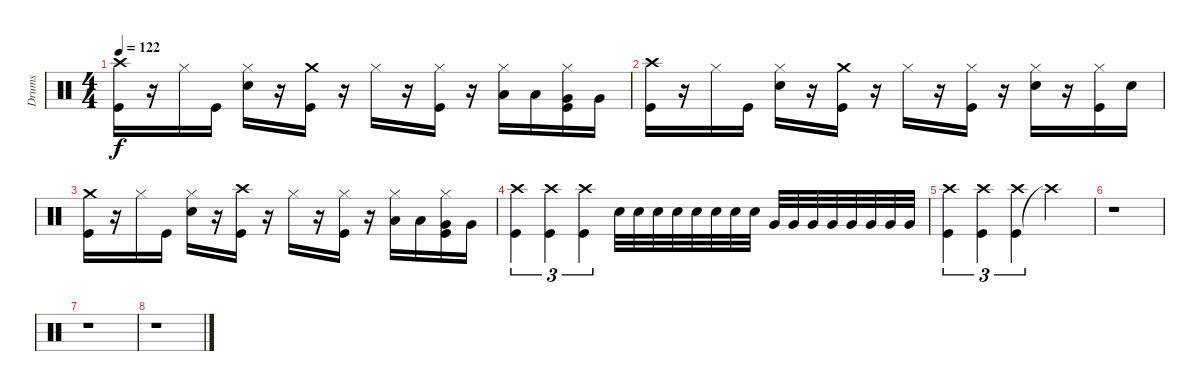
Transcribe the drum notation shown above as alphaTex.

\track ("Drums" "Drums") {instrument percussion}
\staff {score}
\articulation defaults
\ts (4 4)
\tempo 122
\clef neutral
\ks c
("Kick (hit)" "Crash high (hit)").16{dy f} r.16 "Hi-Hat (closed)".16 "Kick (hit)".16 ("Snare (hit) 2" "Hi-Hat (closed)").16 r.16 ("Kick (hit)" "Crash medium (hit)").16 r.16 "Hi-Hat (closed)".16 r.16 ("Kick (hit)" "Hi-Hat (closed)").16 r.16 ("Low Tom (hit)" "Hi-Hat (closed)").16 "Low Tom (hit)".16 ("Very Low Tom (hit)" "Kick (hit)" "Hi-Hat (closed)").16 "Very Low Tom (hit)".16 |
("Kick (hit)" "Crash high (hit)").16 r.16 "Hi-Hat (closed)".16 "Kick (hit)".16 ("Snare (hit) 2" "Hi-Hat (closed)").16 r.16 ("Kick (hit)" "Crash medium (hit)").16 r.16 "Hi-Hat (closed)".16 r.16 ("Kick (hit)" "Hi-Hat (closed)").16 r.16 ("Snare (hit) 2" "Hi-Hat (closed)").16 r.16 ("Kick (hit)" "Hi-Hat (closed)").16 "Snare (hit) 2".16 |
("Kick (hit)" "Crash medium (hit)").16 r.16 "Hi-Hat (closed)".16 "Kick (hit)".16 ("Snare (hit) 2" "Hi-Hat (closed)").16 r.16 ("Kick (hit)" "Crash high (hit)").16 r.16 "Hi-Hat (closed)".16 r.16 ("Kick (hit)" "Hi-Hat (closed)").16 r.16 ("Low Tom (hit)" "Hi-Hat (closed)").16 "Low Tom (hit)".16 ("Very Low Tom (hit)" "Kick (hit)" "Hi-Hat (closed)").16 "Very Low Tom (hit)".16 |
("Kick (hit)" "Crash high (hit)").4{tu (3 2)} ("Kick (hit)" "Crash high (hit)").4{tu (3 2)} ("Kick (hit)" "Crash high (hit)").4{tu (3 2)} "Snare (hit) 2".32 "Snare (hit) 2".32 "Snare (hit) 2".32 "Snare (hit) 2".32 "Snare (hit) 2".32 "Snare (hit) 2".32 "Snare (hit) 2".32 "Snare (hit) 2".32 "Very Low Tom (hit)".32 "Very Low Tom (hit)".32 "Very Low Tom (hit)".32 "Very Low Tom (hit)".32 "Very Low Tom (hit)".32 "Very Low Tom (hit)".32 "Very Low Tom (hit)".32 "Very Low Tom (hit)".32 |
("Kick (hit)" "Crash high (hit)").4{tu (3 2)} ("Kick (hit)" "Crash high (hit)").4{tu (3 2)} ("Kick (hit)" "Crash high (hit)").4{tu (3 2)} "Crash high (hit)"{t}.2 |
r.1 |
r.1 |
r.1
